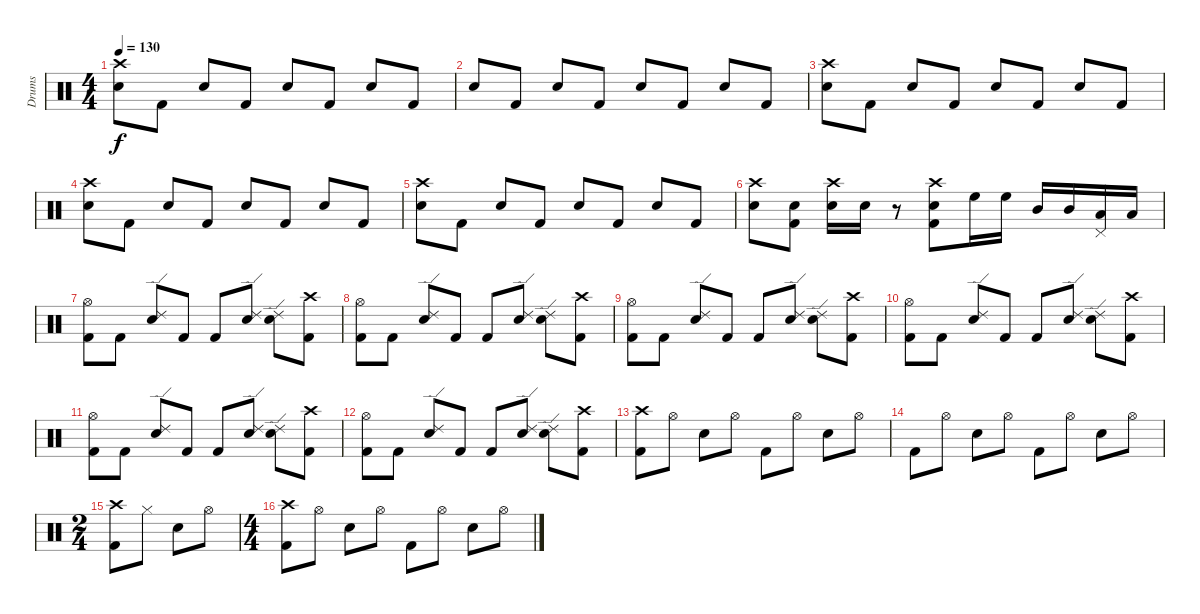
\track ("Drums" "Drums") {instrument percussion}
\staff {score}
\articulation defaults
\ts (4 4)
\tempo 130
\clef neutral
\ks c
("Crash high (hit)" "Electric Snare (hit)").8{dy f} "Kick (hit) 2".8 "Electric Snare (hit)".8 "Kick (hit) 2".8 "Electric Snare (hit)".8 "Kick (hit) 2".8 "Electric Snare (hit)".8 "Kick (hit) 2".8 |
"Electric Snare (hit)".8 "Kick (hit) 2".8 "Electric Snare (hit)".8 "Kick (hit) 2".8 "Electric Snare (hit)".8 "Kick (hit) 2".8 "Electric Snare (hit)".8 "Kick (hit) 2".8 |
("Crash high (hit)" "Electric Snare (hit)").8 "Kick (hit) 2".8 "Electric Snare (hit)".8 "Kick (hit) 2".8 "Electric Snare (hit)".8 "Kick (hit) 2".8 "Electric Snare (hit)".8 "Kick (hit) 2".8 |
("Crash high (hit)" "Electric Snare (hit)").8 "Kick (hit) 2".8 "Electric Snare (hit)".8 "Kick (hit) 2".8 "Electric Snare (hit)".8 "Kick (hit) 2".8 "Electric Snare (hit)".8 "Kick (hit) 2".8 |
("Crash high (hit)" "Electric Snare (hit)").8 "Kick (hit) 2".8 "Electric Snare (hit)".8 "Kick (hit) 2".8 "Electric Snare (hit)".8 "Kick (hit) 2".8 "Electric Snare (hit)".8 "Kick (hit) 2".8 |
("Crash high (hit)" "Electric Snare (hit)").8 ("Electric Snare (hit)" "Kick (hit) 2").8 ("Crash high (hit)" "Electric Snare (hit)").16 "Electric Snare (hit)".16 r.8 ("Crash high (hit)" "Electric Snare (hit)" "Kick (hit) 2").8 "High Floor Tom (hit)".16 "High Floor Tom (hit)".16 "Mid Tom (hit)".16 "Mid Tom (hit)".16 ("Low Tom (hit)" "Pedal Hi-Hat (hit)").16 "Low Tom (hit)".16 |
("Hi-Hat (open)" "Kick (hit) 2").8 "Kick (hit) 2".8 ("Ride (edge) 2" "Electric Snare (hit)").8 "Kick (hit) 2".8 "Kick (hit) 2".8 ("Ride (edge) 2" "Electric Snare (hit)").8 ("Ride (edge) 2" "Electric Snare (hit)").8 ("Crash high (hit)" "Kick (hit) 2").8 |
("Hi-Hat (open)" "Kick (hit) 2").8 "Kick (hit) 2".8 ("Ride (edge) 2" "Electric Snare (hit)").8 "Kick (hit) 2".8 "Kick (hit) 2".8 ("Ride (edge) 2" "Electric Snare (hit)").8 ("Ride (edge) 2" "Electric Snare (hit)").8 ("Crash high (hit)" "Kick (hit) 2").8 |
("Hi-Hat (open)" "Kick (hit) 2").8 "Kick (hit) 2".8 ("Ride (edge) 2" "Electric Snare (hit)").8 "Kick (hit) 2".8 "Kick (hit) 2".8 ("Ride (edge) 2" "Electric Snare (hit)").8 ("Ride (edge) 2" "Electric Snare (hit)").8 ("Crash high (hit)" "Kick (hit) 2").8 |
("Hi-Hat (open)" "Kick (hit) 2").8 "Kick (hit) 2".8 ("Ride (edge) 2" "Electric Snare (hit)").8 "Kick (hit) 2".8 "Kick (hit) 2".8 ("Ride (edge) 2" "Electric Snare (hit)").8 ("Ride (edge) 2" "Electric Snare (hit)").8 ("Crash high (hit)" "Kick (hit) 2").8 |
("Hi-Hat (open)" "Kick (hit) 2").8 "Kick (hit) 2".8 ("Ride (edge) 2" "Electric Snare (hit)").8 "Kick (hit) 2".8 "Kick (hit) 2".8 ("Ride (edge) 2" "Electric Snare (hit)").8 ("Ride (edge) 2" "Electric Snare (hit)").8 ("Crash high (hit)" "Kick (hit) 2").8 |
("Hi-Hat (open)" "Kick (hit) 2").8 "Kick (hit) 2".8 ("Ride (edge) 2" "Electric Snare (hit)").8 "Kick (hit) 2".8 "Kick (hit) 2".8 ("Ride (edge) 2" "Electric Snare (hit)").8 ("Ride (edge) 2" "Electric Snare (hit)").8 ("Crash high (hit)" "Kick (hit) 2").8 |
("Crash high (hit)" "Kick (hit) 2").8 "Hi-Hat (open)".8 "Electric Snare (hit)".8 "Hi-Hat (open)".8 "Kick (hit) 2".8 "Hi-Hat (open)".8 "Electric Snare (hit)".8 "Hi-Hat (open)".8 |
"Kick (hit) 2".8 "Hi-Hat (open)".8 "Electric Snare (hit)".8 "Hi-Hat (open)".8 "Kick (hit) 2".8 "Hi-Hat (open)".8 "Electric Snare (hit)".8 "Hi-Hat (open)".8 |
\ts (2 4)
("Crash high (hit)" "Kick (hit) 2").8 "Hi-Hat (closed)".8 "Electric Snare (hit)".8 "Hi-Hat (open)".8 |
\ts (4 4)
("Crash high (hit)" "Kick (hit) 2").8 "Hi-Hat (open)".8 "Electric Snare (hit)".8 "Hi-Hat (open)".8 "Kick (hit) 2".8 "Hi-Hat (open)".8 "Electric Snare (hit)".8 "Hi-Hat (open)".8
